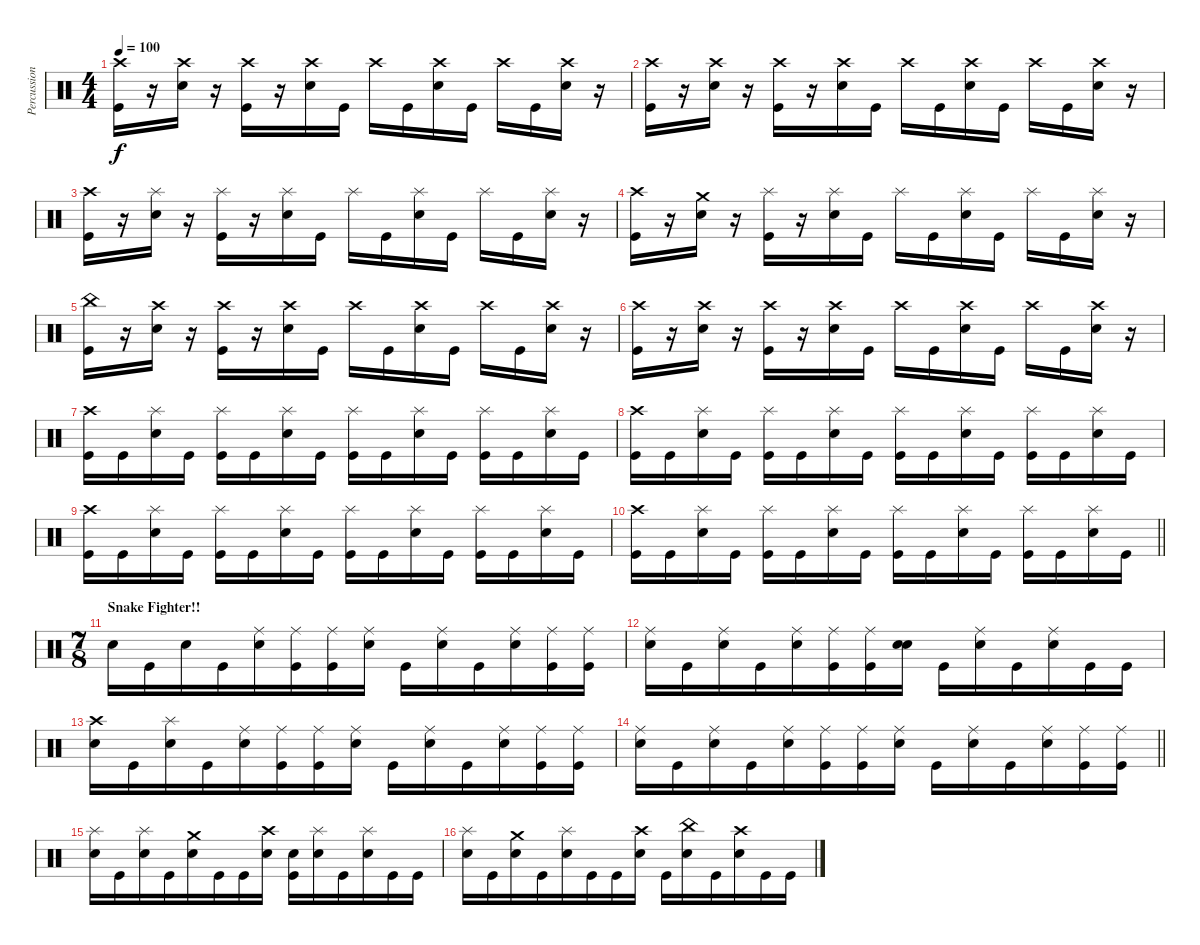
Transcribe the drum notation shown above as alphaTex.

\track ("Percussion" "Percussion") {instrument percussion}
\staff {score}
\articulation defaults
\ts (4 4)
\tempo 100
\clef neutral
\ks c
("Crash high (hit)" "Kick (hit)").16{dy f} r.16 ("Crash high (hit)" "Snare (hit) 2").16 r.16 ("Crash high (hit)" "Kick (hit)").16 r.16 ("Crash high (hit)" "Snare (hit) 2").16 "Kick (hit)".16 "Crash high (hit)".16 "Kick (hit)".16 ("Crash high (hit)" "Snare (hit) 2").16 "Kick (hit)".16 "Crash high (hit)".16 "Kick (hit)".16 ("Crash high (hit)" "Snare (hit) 2").16 r.16 |
("Crash high (hit)" "Kick (hit)").16 r.16 ("Crash high (hit)" "Snare (hit) 2").16 r.16 ("Crash high (hit)" "Kick (hit)").16 r.16 ("Crash high (hit)" "Snare (hit) 2").16 "Kick (hit)".16 "Crash high (hit)".16 "Kick (hit)".16 ("Crash high (hit)" "Snare (hit) 2").16 "Kick (hit)".16 "Crash high (hit)".16 "Kick (hit)".16 ("Crash high (hit)" "Snare (hit) 2").16 r.16 |
("Crash high (hit)" "Kick (hit)").16 r.16 ("Splash (hit)" "Snare (hit) 2").16 r.16 ("Splash (hit)" "Kick (hit)").16 r.16 ("Splash (hit)" "Snare (hit) 2").16 "Kick (hit)".16 "Splash (hit)".16 "Kick (hit)".16 ("Splash (hit)" "Snare (hit) 2").16 "Kick (hit)".16 "Splash (hit)".16 "Kick (hit)".16 ("Splash (hit)" "Snare (hit) 2").16 r.16 |
("Crash high (hit)" "Kick (hit)").16 r.16 ("Crash medium (hit)" "Snare (hit) 2").16 r.16 ("Splash (hit)" "Kick (hit)").16 r.16 ("Splash (hit)" "Snare (hit) 2").16 "Kick (hit)".16 "Splash (hit)".16 "Kick (hit)".16 ("Splash (hit)" "Snare (hit) 2").16 "Kick (hit)".16 "Splash (hit)".16 "Kick (hit)".16 ("Splash (hit)" "Snare (hit) 2").16 r.16 |
("China (hit)" "Kick (hit)").16 r.16 ("Crash high (hit)" "Snare (hit) 2").16 r.16 ("Crash high (hit)" "Kick (hit)").16 r.16 ("Crash high (hit)" "Snare (hit) 2").16 "Kick (hit)".16 "Crash high (hit)".16 "Kick (hit)".16 ("Crash high (hit)" "Snare (hit) 2").16 "Kick (hit)".16 "Crash high (hit)".16 "Kick (hit)".16 ("Crash high (hit)" "Snare (hit) 2").16 r.16 |
("Crash high (hit)" "Kick (hit)").16 r.16 ("Crash high (hit)" "Snare (hit) 2").16 r.16 ("Crash high (hit)" "Kick (hit)").16 r.16 ("Crash high (hit)" "Snare (hit) 2").16 "Kick (hit)".16 "Crash high (hit)".16 "Kick (hit)".16 ("Crash high (hit)" "Snare (hit) 2").16 "Kick (hit)".16 "Crash high (hit)".16 "Kick (hit)".16 ("Crash high (hit)" "Snare (hit) 2").16 r.16 |
("Crash high (hit)" "Kick (hit)").16 "Kick (hit)".16 ("Splash (hit)" "Snare (hit) 2").16 "Kick (hit)".16 ("Splash (hit)" "Kick (hit)").16 "Kick (hit)".16 ("Splash (hit)" "Snare (hit) 2").16 "Kick (hit)".16 ("Splash (hit)" "Kick (hit)").16 "Kick (hit)".16 ("Splash (hit)" "Snare (hit) 2").16 "Kick (hit)".16 ("Splash (hit)" "Kick (hit)").16 "Kick (hit)".16 ("Splash (hit)" "Snare (hit) 2").16 "Kick (hit)".16 |
("Crash high (hit)" "Kick (hit)").16 "Kick (hit)".16 ("Splash (hit)" "Snare (hit) 2").16 "Kick (hit)".16 ("Splash (hit)" "Kick (hit)").16 "Kick (hit)".16 ("Splash (hit)" "Snare (hit) 2").16 "Kick (hit)".16 ("Splash (hit)" "Kick (hit)").16 "Kick (hit)".16 ("Splash (hit)" "Snare (hit) 2").16 "Kick (hit)".16 ("Splash (hit)" "Kick (hit)").16 "Kick (hit)".16 ("Splash (hit)" "Snare (hit) 2").16 "Kick (hit)".16 |
("Crash high (hit)" "Kick (hit)").16 "Kick (hit)".16 ("Splash (hit)" "Snare (hit) 2").16 "Kick (hit)".16 ("Splash (hit)" "Kick (hit)").16 "Kick (hit)".16 ("Splash (hit)" "Snare (hit) 2").16 "Kick (hit)".16 ("Splash (hit)" "Kick (hit)").16 "Kick (hit)".16 ("Splash (hit)" "Snare (hit) 2").16 "Kick (hit)".16 ("Splash (hit)" "Kick (hit)").16 "Kick (hit)".16 ("Splash (hit)" "Snare (hit) 2").16 "Kick (hit)".16 |
\barLineRight lightlight
("Crash high (hit)" "Kick (hit)").16 "Kick (hit)".16 ("Splash (hit)" "Snare (hit) 2").16 "Kick (hit)".16 ("Splash (hit)" "Kick (hit)").16 "Kick (hit)".16 ("Splash (hit)" "Snare (hit) 2").16 "Kick (hit)".16 ("Splash (hit)" "Kick (hit)").16 "Kick (hit)".16 ("Splash (hit)" "Snare (hit) 2").16 "Kick (hit)".16 ("Splash (hit)" "Kick (hit)").16 "Kick (hit)".16 ("Splash (hit)" "Snare (hit) 2").16 "Kick (hit)".16 |
\ts (7 8)
\section ("" "Snake Fighter!! ")
"Snare (hit) 2".16 "Kick (hit)".16 "Snare (hit) 2".16 "Kick (hit)".16 ("Ride (middle)" "Snare (hit) 2").16 ("Ride (middle)" "Kick (hit)").16 ("Ride (middle)" "Kick (hit)").16 ("Ride (middle)" "Snare (hit) 2").16 "Kick (hit)".16 ("Ride (middle)" "Snare (hit) 2").16 "Kick (hit)".16 ("Ride (middle)" "Snare (hit) 2").16 ("Ride (middle)" "Kick (hit)").16 ("Ride (middle)" "Kick (hit)").16 |
("Ride (middle)" "Snare (hit) 2").16 "Kick (hit)".16 ("Ride (middle)" "Snare (hit) 2").16 "Kick (hit)".16 ("Ride (middle)" "Snare (hit) 2").16 ("Ride (middle)" "Kick (hit)").16 ("Ride (middle)" "Kick (hit)").16 ("Snare (hit)" "Snare (hit) 2").16 "Kick (hit)".16 ("Ride (middle)" "Snare (hit) 2").16 "Kick (hit)".16 ("Ride (middle)" "Snare (hit) 2").16 "Kick (hit)".16 "Kick (hit)".16 |
("Crash high (hit)" "Snare (hit) 2").16 "Kick (hit)".16 ("Splash (hit)" "Snare (hit) 2").16 "Kick (hit)".16 ("Ride (middle)" "Snare (hit) 2").16 ("Ride (middle)" "Kick (hit)").16 ("Ride (middle)" "Kick (hit)").16 ("Ride (middle)" "Snare (hit) 2").16 "Kick (hit)".16 ("Ride (middle)" "Snare (hit) 2").16 "Kick (hit)".16 ("Ride (middle)" "Snare (hit) 2").16 ("Ride (middle)" "Kick (hit)").16 ("Ride (middle)" "Kick (hit)").16 |
\barLineRight lightlight
("Ride (middle)" "Snare (hit) 2").16 "Kick (hit)".16 ("Ride (middle)" "Snare (hit) 2").16 "Kick (hit)".16 ("Ride (middle)" "Snare (hit) 2").16 ("Ride (middle)" "Kick (hit)").16 ("Ride (middle)" "Kick (hit)").16 ("Ride (middle)" "Snare (hit) 2").16 "Kick (hit)".16 ("Ride (middle)" "Snare (hit) 2").16 "Kick (hit)".16 ("Ride (middle)" "Snare (hit) 2").16 ("Ride (middle)" "Kick (hit)").16 ("Ride (middle)" "Kick (hit)").16 |
\section ("" "")
("Splash (hit)" "Snare (hit) 2").16 "Kick (hit)".16 ("Splash (hit)" "Snare (hit) 2").16 "Kick (hit)".16 ("Crash medium (hit)" "Snare (hit) 2").16 "Kick (hit)".16 "Kick (hit)".16 ("Crash high (hit)" "Snare (hit) 2").16 ("Snare (hit)" "Kick (hit)").16 ("Splash (hit)" "Snare (hit) 2").16 "Kick (hit)".16 ("Splash (hit)" "Snare (hit) 2").16 "Kick (hit)".16 "Kick (hit)".16 |
("Splash (hit)" "Snare (hit) 2").16 "Kick (hit)".16 ("Crash medium (hit)" "Snare (hit) 2").16 "Kick (hit)".16 ("Splash (hit)" "Snare (hit) 2").16 "Kick (hit)".16 "Kick (hit)".16 ("Crash high (hit)" "Snare (hit) 2").16 "Kick (hit)".16 ("China (hit)" "Snare (hit) 2").16 "Kick (hit)".16 ("Crash high (hit)" "Snare (hit) 2").16 "Kick (hit)".16 "Kick (hit)".16
